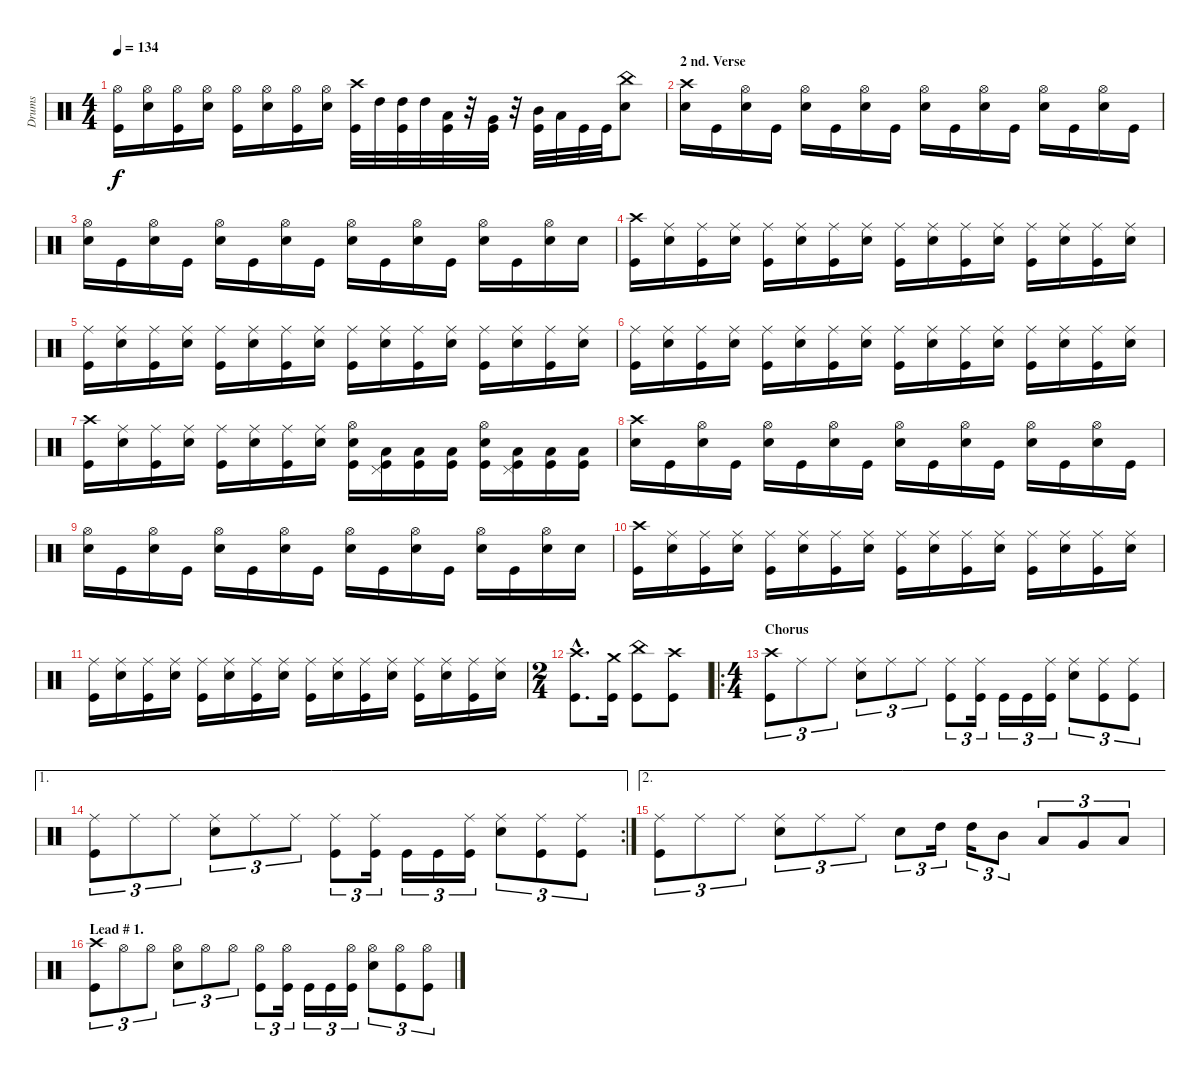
\track ("Drums" "Drums") {instrument percussion}
\staff {score}
\articulation defaults
\ts (4 4)
\tempo 134
\clef neutral
\ks c
("Hi-Hat (open)" "Kick (hit)").16{dy f} ("Hi-Hat (open)" "Electric Snare (hit)").16 ("Hi-Hat (open)" "Kick (hit)").16 ("Hi-Hat (open)" "Electric Snare (hit)").16 ("Hi-Hat (open)" "Kick (hit)").16 ("Hi-Hat (open)" "Electric Snare (hit)").16 ("Hi-Hat (open)" "Kick (hit)").16 ("Hi-Hat (open)" "Electric Snare (hit)").16 ("Crash high (hit)" "Kick (hit)").32 "High Tom (hit)".32 ("High Tom (hit)" "Kick (hit)").32 "High Tom (hit)".32 ("Low Tom (hit)" "Kick (hit)").32 r.32 ("Very Low Tom (hit)" "Kick (hit)").32 r.32 ("Mid Tom (hit)" "Kick (hit)").32 "Low Tom (hit)".32 "Kick (hit)".32 "Kick (hit)".32 ("China (hit)" "Electric Snare (hit)").8 |
\section ("" "2 nd. Verse")
("Crash high (hit)" "Electric Snare (hit)").16 "Kick (hit)".16 ("Hi-Hat (open)" "Electric Snare (hit)").16 "Kick (hit)".16 ("Hi-Hat (open)" "Electric Snare (hit)").16 "Kick (hit)".16 ("Hi-Hat (open)" "Electric Snare (hit)").16 "Kick (hit)".16 ("Hi-Hat (open)" "Electric Snare (hit)").16 "Kick (hit)".16 ("Hi-Hat (open)" "Electric Snare (hit)").16 "Kick (hit)".16 ("Hi-Hat (open)" "Electric Snare (hit)").16 "Kick (hit)".16 ("Hi-Hat (open)" "Electric Snare (hit)").16 "Kick (hit)".16 |
("Hi-Hat (open)" "Electric Snare (hit)").16 "Kick (hit)".16 ("Hi-Hat (open)" "Electric Snare (hit)").16 "Kick (hit)".16 ("Hi-Hat (open)" "Electric Snare (hit)").16 "Kick (hit)".16 ("Hi-Hat (open)" "Electric Snare (hit)").16 "Kick (hit)".16 ("Hi-Hat (open)" "Electric Snare (hit)").16 "Kick (hit)".16 ("Hi-Hat (open)" "Electric Snare (hit)").16 "Kick (hit)".16 ("Hi-Hat (open)" "Electric Snare (hit)").16 "Kick (hit)".16 ("Hi-Hat (open)" "Electric Snare (hit)").16 "Electric Snare (hit)".16 |
("Crash high (hit)" "Kick (hit)").16 ("Ride (middle)" "Electric Snare (hit)").16 ("Ride (middle)" "Kick (hit)").16 ("Ride (middle)" "Electric Snare (hit)").16 ("Ride (middle)" "Kick (hit)").16 ("Ride (middle)" "Electric Snare (hit)").16 ("Ride (middle)" "Kick (hit)").16 ("Ride (middle)" "Electric Snare (hit)").16 ("Ride (middle)" "Kick (hit)").16 ("Ride (middle)" "Electric Snare (hit)").16 ("Ride (middle)" "Kick (hit)").16 ("Ride (middle)" "Electric Snare (hit)").16 ("Ride (middle)" "Kick (hit)").16 ("Ride (middle)" "Electric Snare (hit)").16 ("Ride (middle)" "Kick (hit)").16 ("Ride (middle)" "Electric Snare (hit)").16 |
("Ride (middle)" "Kick (hit)").16 ("Ride (middle)" "Electric Snare (hit)").16 ("Ride (middle)" "Kick (hit)").16 ("Ride (middle)" "Electric Snare (hit)").16 ("Ride (middle)" "Kick (hit)").16 ("Ride (middle)" "Electric Snare (hit)").16 ("Ride (middle)" "Kick (hit)").16 ("Ride (middle)" "Electric Snare (hit)").16 ("Ride (middle)" "Kick (hit)").16 ("Ride (middle)" "Electric Snare (hit)").16 ("Ride (middle)" "Kick (hit)").16 ("Ride (middle)" "Electric Snare (hit)").16 ("Ride (middle)" "Kick (hit)").16 ("Ride (middle)" "Electric Snare (hit)").16 ("Ride (middle)" "Kick (hit)").16 ("Ride (middle)" "Electric Snare (hit)").16 |
("Ride (middle)" "Kick (hit)").16 ("Ride (middle)" "Electric Snare (hit)").16 ("Ride (middle)" "Kick (hit)").16 ("Ride (middle)" "Electric Snare (hit)").16 ("Ride (middle)" "Kick (hit)").16 ("Ride (middle)" "Electric Snare (hit)").16 ("Ride (middle)" "Kick (hit)").16 ("Ride (middle)" "Electric Snare (hit)").16 ("Ride (middle)" "Kick (hit)").16 ("Ride (middle)" "Electric Snare (hit)").16 ("Ride (middle)" "Kick (hit)").16 ("Ride (middle)" "Electric Snare (hit)").16 ("Ride (middle)" "Kick (hit)").16 ("Ride (middle)" "Electric Snare (hit)").16 ("Ride (middle)" "Kick (hit)").16 ("Ride (middle)" "Electric Snare (hit)").16 |
("Crash high (hit)" "Kick (hit)").16 ("Ride (middle)" "Electric Snare (hit)").16 ("Ride (middle)" "Kick (hit)").16 ("Ride (middle)" "Electric Snare (hit)").16 ("Ride (middle)" "Kick (hit)").16 ("Ride (middle)" "Electric Snare (hit)").16 ("Ride (middle)" "Kick (hit)").16 ("Ride (middle)" "Electric Snare (hit)").16 ("Hi-Hat (open)" "Electric Snare (hit)" "Kick (hit)").16 ("Pedal Hi-Hat (hit)" "Low Tom (hit)" "Kick (hit)").16 ("Low Tom (hit)" "Kick (hit)").16 ("Low Tom (hit)" "Kick (hit)").16 ("Hi-Hat (open)" "Electric Snare (hit)" "Kick (hit)").16 ("Pedal Hi-Hat (hit)" "Low Tom (hit)" "Kick (hit)").16 ("Low Tom (hit)" "Kick (hit)").16 ("Low Tom (hit)" "Kick (hit)").16 |
("Crash high (hit)" "Electric Snare (hit)").16 "Kick (hit)".16 ("Hi-Hat (open)" "Electric Snare (hit)").16 "Kick (hit)".16 ("Hi-Hat (open)" "Electric Snare (hit)").16 "Kick (hit)".16 ("Hi-Hat (open)" "Electric Snare (hit)").16 "Kick (hit)".16 ("Hi-Hat (open)" "Electric Snare (hit)").16 "Kick (hit)".16 ("Hi-Hat (open)" "Electric Snare (hit)").16 "Kick (hit)".16 ("Hi-Hat (open)" "Electric Snare (hit)").16 "Kick (hit)".16 ("Hi-Hat (open)" "Electric Snare (hit)").16 "Kick (hit)".16 |
("Hi-Hat (open)" "Electric Snare (hit)").16 "Kick (hit)".16 ("Hi-Hat (open)" "Electric Snare (hit)").16 "Kick (hit)".16 ("Hi-Hat (open)" "Electric Snare (hit)").16 "Kick (hit)".16 ("Hi-Hat (open)" "Electric Snare (hit)").16 "Kick (hit)".16 ("Hi-Hat (open)" "Electric Snare (hit)").16 "Kick (hit)".16 ("Hi-Hat (open)" "Electric Snare (hit)").16 "Kick (hit)".16 ("Hi-Hat (open)" "Electric Snare (hit)").16 "Kick (hit)".16 ("Hi-Hat (open)" "Electric Snare (hit)").16 "Electric Snare (hit)".16 |
("Crash high (hit)" "Kick (hit)").16 ("Ride (middle)" "Electric Snare (hit)").16 ("Ride (middle)" "Kick (hit)").16 ("Ride (middle)" "Electric Snare (hit)").16 ("Ride (middle)" "Kick (hit)").16 ("Ride (middle)" "Electric Snare (hit)").16 ("Ride (middle)" "Kick (hit)").16 ("Ride (middle)" "Electric Snare (hit)").16 ("Ride (middle)" "Kick (hit)").16 ("Ride (middle)" "Electric Snare (hit)").16 ("Ride (middle)" "Kick (hit)").16 ("Ride (middle)" "Electric Snare (hit)").16 ("Ride (middle)" "Kick (hit)").16 ("Ride (middle)" "Electric Snare (hit)").16 ("Ride (middle)" "Kick (hit)").16 ("Ride (middle)" "Electric Snare (hit)").16 |
("Ride (middle)" "Kick (hit)").16 ("Ride (middle)" "Electric Snare (hit)").16 ("Ride (middle)" "Kick (hit)").16 ("Ride (middle)" "Electric Snare (hit)").16 ("Ride (middle)" "Kick (hit)").16 ("Ride (middle)" "Electric Snare (hit)").16 ("Ride (middle)" "Kick (hit)").16 ("Ride (middle)" "Electric Snare (hit)").16 ("Ride (middle)" "Kick (hit)").16 ("Ride (middle)" "Electric Snare (hit)").16 ("Ride (middle)" "Kick (hit)").16 ("Ride (middle)" "Electric Snare (hit)").16 ("Ride (middle)" "Kick (hit)").16 ("Ride (middle)" "Electric Snare (hit)").16 ("Ride (middle)" "Kick (hit)").16 ("Ride (middle)" "Electric Snare (hit)").16 |
\ts (2 4)
("Crash high (hit)"{hac} "Kick (hit)"{hac}).8{d} ("Crash medium (hit)" "Kick (hit)").16 ("China (hit)" "Kick (hit)").8 ("Crash high (hit)" "Kick (hit)").8 |
\ro
\ts (4 4)
\section ("" "Chorus")
("Crash high (hit)" "Kick (hit)").8{tu (3 2)} "Ride (middle)".8{tu (3 2)} "Ride (middle)".8{tu (3 2)} ("Ride (middle)" "Electric Snare (hit)").8{tu (3 2)} "Ride (middle)".8{tu (3 2)} "Ride (middle)".8{tu (3 2)} ("Ride (middle)" "Kick (hit)").8{tu (3 2)} ("Ride (middle)" "Kick (hit)").16{tu (3 2)} "Kick (hit)".16{tu (3 2)} "Kick (hit)".16{tu (3 2)} ("Ride (middle)" "Kick (hit)").16{tu (3 2)} ("Ride (middle)" "Electric Snare (hit)").8{tu (3 2)} ("Ride (middle)" "Kick (hit)").8{tu (3 2)} ("Ride (middle)" "Kick (hit)").8{tu (3 2)} |
\ae 1
\rc 2
("Ride (middle)" "Kick (hit)").8{tu (3 2)} "Ride (middle)".8{tu (3 2)} "Ride (middle)".8{tu (3 2)} ("Ride (middle)" "Electric Snare (hit)").8{tu (3 2)} "Ride (middle)".8{tu (3 2)} "Ride (middle)".8{tu (3 2)} ("Ride (middle)" "Kick (hit)").8{tu (3 2)} ("Ride (middle)" "Kick (hit)").16{tu (3 2)} "Kick (hit)".16{tu (3 2)} "Kick (hit)".16{tu (3 2)} ("Ride (middle)" "Kick (hit)").16{tu (3 2)} ("Ride (middle)" "Electric Snare (hit)").8{tu (3 2)} ("Ride (middle)" "Kick (hit)").8{tu (3 2)} ("Ride (middle)" "Kick (hit)").8{tu (3 2)} |
\ae 2
("Ride (middle)" "Kick (hit)").8{tu (3 2)} "Ride (middle)".8{tu (3 2)} "Ride (middle)".8{tu (3 2)} ("Ride (middle)" "Electric Snare (hit)").8{tu (3 2)} "Ride (middle)".8{tu (3 2)} "Ride (middle)".8{tu (3 2)} "Electric Snare (hit)".8{tu (3 2)} "High Tom (hit)".16{tu (3 2)} "High Tom (hit)".16{tu (3 2)} "Mid Tom (hit)".8{tu (3 2)} "Low Tom (hit)".8{tu (3 2)} "Very Low Tom (hit)".8{tu (3 2)} "Low Floor Tom (hit)".8{tu (3 2)} |
\section ("" "Lead # 1.")
("Crash high (hit)" "Kick (hit)").8{tu (3 2)} "Hi-Hat (open)".8{tu (3 2)} "Hi-Hat (open)".8{tu (3 2)} ("Hi-Hat (open)" "Electric Snare (hit)").8{tu (3 2)} "Hi-Hat (open)".8{tu (3 2)} "Hi-Hat (open)".8{tu (3 2)} ("Hi-Hat (open)" "Kick (hit)").8{tu (3 2)} ("Hi-Hat (open)" "Kick (hit)").16{tu (3 2)} "Kick (hit)".16{tu (3 2)} "Kick (hit)".16{tu (3 2)} ("Hi-Hat (open)" "Kick (hit)").16{tu (3 2)} ("Hi-Hat (open)" "Electric Snare (hit)").8{tu (3 2)} ("Hi-Hat (open)" "Kick (hit)").8{tu (3 2)} ("Hi-Hat (open)" "Kick (hit)").8{tu (3 2)}
